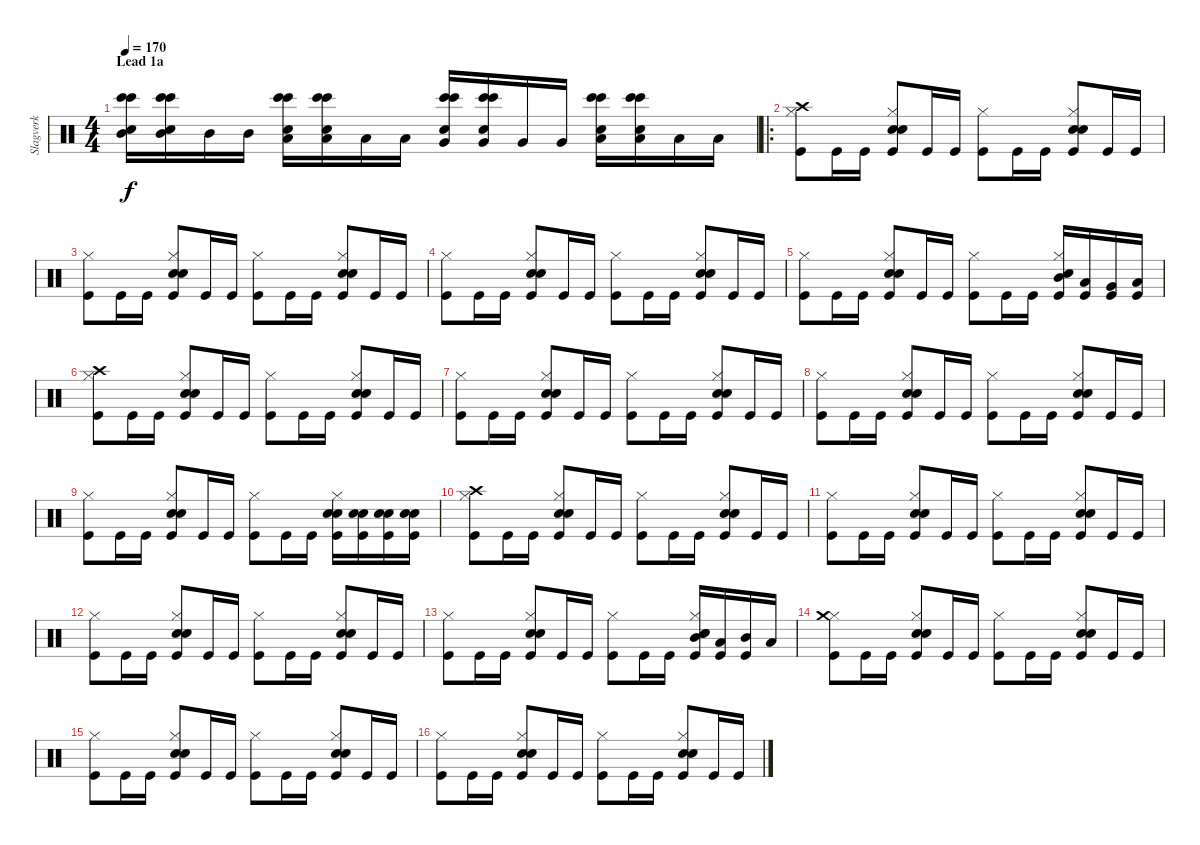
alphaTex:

\track ("Slagverk" "Slagverk") {instrument percussion}
\staff {score}
\articulation defaults
\ts (4 4)
\section ("" "Lead 1a")
\tempo 170
\clef neutral
\ks c
("Mid Tom (hit)" "Electric Snare (hit)" "Bongo High (hit)" "Bongo High (hit)").16{dy f} ("Mid Tom (hit)" "Electric Snare (hit)" "Bongo High (hit)" "Bongo High (hit)").16 "Mid Tom (hit)".16 "Mid Tom (hit)".16 ("Low Tom (hit)" "Electric Snare (hit)" "Bongo High (hit)" "Bongo High (hit)").16 ("Low Tom (hit)" "Electric Snare (hit)" "Bongo High (hit)" "Bongo High (hit)").16 "Low Tom (hit)".16 "Low Tom (hit)".16 ("Very Low Tom (hit)" "Electric Snare (hit)" "Bongo High (hit)" "Bongo High (hit)").16 ("Very Low Tom (hit)" "Electric Snare (hit)" "Bongo High (hit)" "Bongo High (hit)").16 "Very Low Tom (hit)".16 "Very Low Tom (hit)".16 ("Low Floor Tom (hit)" "Electric Snare (hit)" "Bongo High (hit)" "Bongo High (hit)").16 ("Low Floor Tom (hit)" "Electric Snare (hit)" "Bongo High (hit)" "Bongo High (hit)").16 "Low Floor Tom (hit)".16 "Low Floor Tom (hit)".16 |
\ro
("Hi-Hat (closed)" "Crash high (hit)" "Kick (hit)").8 "Kick (hit)".16 "Kick (hit)".16 ("Hi-Hat (closed)" "Electric Snare (hit)" "Snare (hit) 2" "Kick (hit)").8 "Kick (hit)".16 "Kick (hit)".16 ("Hi-Hat (closed)" "Kick (hit)").8 "Kick (hit)".16 "Kick (hit)".16 ("Hi-Hat (closed)" "Electric Snare (hit)" "Snare (hit) 2" "Kick (hit)").8 "Kick (hit)".16 "Kick (hit)".16 |
("Hi-Hat (closed)" "Kick (hit)").8 "Kick (hit)".16 "Kick (hit)".16 ("Hi-Hat (closed)" "Electric Snare (hit)" "Snare (hit) 2" "Kick (hit)").8 "Kick (hit)".16 "Kick (hit)".16 ("Hi-Hat (closed)" "Kick (hit)").8 "Kick (hit)".16 "Kick (hit)".16 ("Hi-Hat (closed)" "Electric Snare (hit)" "Snare (hit) 2" "Kick (hit)").8 "Kick (hit)".16 "Kick (hit)".16 |
("Hi-Hat (closed)" "Kick (hit)").8 "Kick (hit)".16 "Kick (hit)".16 ("Hi-Hat (closed)" "Electric Snare (hit)" "Snare (hit) 2" "Kick (hit)").8 "Kick (hit)".16 "Kick (hit)".16 ("Hi-Hat (closed)" "Kick (hit)").8 "Kick (hit)".16 "Kick (hit)".16 ("Hi-Hat (closed)" "Electric Snare (hit)" "Snare (hit) 2" "Kick (hit)").8 "Kick (hit)".16 "Kick (hit)".16 |
("Hi-Hat (closed)" "Kick (hit)").8 "Kick (hit)".16 "Kick (hit)".16 ("Hi-Hat (closed)" "Electric Snare (hit)" "Snare (hit) 2" "Kick (hit)").8 "Kick (hit)".16 "Kick (hit)".16 ("Hi-Hat (closed)" "Kick (hit)").8 "Kick (hit)".16 "Kick (hit)".16 ("Hi-Hat (closed)" "Electric Snare (hit)" "Mid Tom (hit)" "Kick (hit)").16 ("Low Tom (hit)" "Kick (hit)").16 ("Very Low Tom (hit)" "Kick (hit)").16 ("Low Floor Tom (hit)" "Kick (hit)").16 |
("Hi-Hat (closed)" "Crash high (hit)" "Kick (hit)").8 "Kick (hit)".16 "Kick (hit)".16 ("Hi-Hat (closed)" "Electric Snare (hit)" "Snare (hit) 2" "Kick (hit)").8 "Kick (hit)".16 "Kick (hit)".16 ("Hi-Hat (closed)" "Kick (hit)").8 "Kick (hit)".16 "Kick (hit)".16 ("Hi-Hat (closed)" "Electric Snare (hit)" "Snare (hit) 2" "Kick (hit)").8 "Kick (hit)".16 "Kick (hit)".16 |
("Hi-Hat (closed)" "Kick (hit)").8 "Kick (hit)".16 "Kick (hit)".16 ("Hi-Hat (closed)" "Electric Snare (hit)" "Snare (hit) 2" "Kick (hit)").8 "Kick (hit)".16 "Kick (hit)".16 ("Hi-Hat (closed)" "Kick (hit)").8 "Kick (hit)".16 "Kick (hit)".16 ("Hi-Hat (closed)" "Electric Snare (hit)" "Snare (hit) 2" "Kick (hit)").8 "Kick (hit)".16 "Kick (hit)".16 |
("Hi-Hat (closed)" "Kick (hit)").8 "Kick (hit)".16 "Kick (hit)".16 ("Hi-Hat (closed)" "Electric Snare (hit)" "Snare (hit) 2" "Kick (hit)").8 "Kick (hit)".16 "Kick (hit)".16 ("Hi-Hat (closed)" "Kick (hit)").8 "Kick (hit)".16 "Kick (hit)".16 ("Hi-Hat (closed)" "Electric Snare (hit)" "Snare (hit) 2" "Kick (hit)").8 "Kick (hit)".16 "Kick (hit)".16 |
("Hi-Hat (closed)" "Kick (hit)").8 "Kick (hit)".16 "Kick (hit)".16 ("Hi-Hat (closed)" "Electric Snare (hit)" "Snare (hit) 2" "Kick (hit)").8 "Kick (hit)".16 "Kick (hit)".16 ("Hi-Hat (closed)" "Kick (hit)").8 "Kick (hit)".16 "Kick (hit)".16 ("Hi-Hat (closed)" "Electric Snare (hit)" "Snare (hit) 2" "Kick (hit)").16 ("Electric Snare (hit)" "Snare (hit) 2" "Kick (hit)").16 ("Electric Snare (hit)" "Snare (hit) 2" "Kick (hit)").16 ("Electric Snare (hit)" "Snare (hit) 2" "Kick (hit)").16 |
("Hi-Hat (closed)" "Crash high (hit)" "Kick (hit)").8 "Kick (hit)".16 "Kick (hit)".16 ("Hi-Hat (closed)" "Electric Snare (hit)" "Snare (hit) 2" "Kick (hit)").8 "Kick (hit)".16 "Kick (hit)".16 ("Hi-Hat (closed)" "Kick (hit)").8 "Kick (hit)".16 "Kick (hit)".16 ("Hi-Hat (closed)" "Electric Snare (hit)" "Snare (hit) 2" "Kick (hit)").8 "Kick (hit)".16 "Kick (hit)".16 |
("Hi-Hat (closed)" "Kick (hit)").8 "Kick (hit)".16 "Kick (hit)".16 ("Hi-Hat (closed)" "Electric Snare (hit)" "Snare (hit) 2" "Kick (hit)").8 "Kick (hit)".16 "Kick (hit)".16 ("Hi-Hat (closed)" "Kick (hit)").8 "Kick (hit)".16 "Kick (hit)".16 ("Hi-Hat (closed)" "Electric Snare (hit)" "Snare (hit) 2" "Kick (hit)").8 "Kick (hit)".16 "Kick (hit)".16 |
("Hi-Hat (closed)" "Kick (hit)").8 "Kick (hit)".16 "Kick (hit)".16 ("Hi-Hat (closed)" "Electric Snare (hit)" "Snare (hit) 2" "Kick (hit)").8 "Kick (hit)".16 "Kick (hit)".16 ("Hi-Hat (closed)" "Kick (hit)").8 "Kick (hit)".16 "Kick (hit)".16 ("Hi-Hat (closed)" "Electric Snare (hit)" "Snare (hit) 2" "Kick (hit)").8 "Kick (hit)".16 "Kick (hit)".16 |
("Hi-Hat (closed)" "Kick (hit)").8 "Kick (hit)".16 "Kick (hit)".16 ("Hi-Hat (closed)" "Electric Snare (hit)" "Snare (hit) 2" "Kick (hit)").8 "Kick (hit)".16 "Kick (hit)".16 ("Hi-Hat (closed)" "Kick (hit)").8 "Kick (hit)".16 "Kick (hit)".16 ("Hi-Hat (closed)" "Mid Tom (hit)" "Electric Snare (hit)" "Snare (hit) 2" "Kick (hit)").16 ("Low Tom (hit)" "Kick (hit)").16 ("Mid Tom (hit)" "Kick (hit)").16 "Low Tom (hit)".16 |
("Hi-Hat (closed)" "Crash medium (hit)" "Kick (hit)").8 "Kick (hit)".16 "Kick (hit)".16 ("Hi-Hat (closed)" "Electric Snare (hit)" "Snare (hit) 2" "Kick (hit)").8 "Kick (hit)".16 "Kick (hit)".16 ("Hi-Hat (closed)" "Kick (hit)").8 "Kick (hit)".16 "Kick (hit)".16 ("Hi-Hat (closed)" "Electric Snare (hit)" "Snare (hit) 2" "Kick (hit)").8 "Kick (hit)".16 "Kick (hit)".16 |
("Hi-Hat (closed)" "Kick (hit)").8 "Kick (hit)".16 "Kick (hit)".16 ("Hi-Hat (closed)" "Electric Snare (hit)" "Snare (hit) 2" "Kick (hit)").8 "Kick (hit)".16 "Kick (hit)".16 ("Hi-Hat (closed)" "Kick (hit)").8 "Kick (hit)".16 "Kick (hit)".16 ("Hi-Hat (closed)" "Electric Snare (hit)" "Snare (hit) 2" "Kick (hit)").8 "Kick (hit)".16 "Kick (hit)".16 |
("Hi-Hat (closed)" "Kick (hit)").8 "Kick (hit)".16 "Kick (hit)".16 ("Hi-Hat (closed)" "Electric Snare (hit)" "Snare (hit) 2" "Kick (hit)").8 "Kick (hit)".16 "Kick (hit)".16 ("Hi-Hat (closed)" "Kick (hit)").8 "Kick (hit)".16 "Kick (hit)".16 ("Hi-Hat (closed)" "Electric Snare (hit)" "Snare (hit) 2" "Kick (hit)").8 "Kick (hit)".16 "Kick (hit)".16
